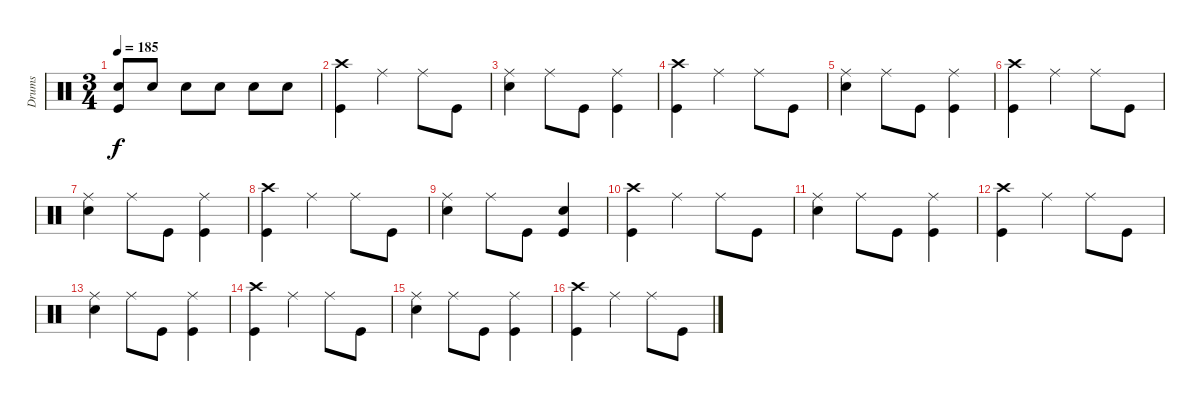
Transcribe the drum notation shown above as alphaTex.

\track ("Drums" "Drums") {instrument percussion}
\staff {score}
\articulation defaults
\ts (3 4)
\tempo 185
\clef neutral
\ks c
("Snare (hit) 2" "Kick (hit)").8{dy f} "Snare (hit) 2".8 "Snare (hit) 2".8 "Snare (hit) 2".8 "Snare (hit) 2".8 "Snare (hit) 2".8 |
("Crash high (hit)" "Kick (hit)").4 "Ride (middle)".4 "Ride (middle)".8 "Kick (hit)".8 |
("Ride (middle)" "Snare (hit) 2").4 "Ride (middle)".8 "Kick (hit)".8 ("Ride (middle)" "Kick (hit)").4 |
("Crash high (hit)" "Kick (hit)").4 "Ride (middle)".4 "Ride (middle)".8 "Kick (hit)".8 |
("Ride (middle)" "Snare (hit) 2").4 "Ride (middle)".8 "Kick (hit)".8 ("Ride (middle)" "Kick (hit)").4 |
("Crash high (hit)" "Kick (hit)").4 "Ride (middle)".4 "Ride (middle)".8 "Kick (hit)".8 |
("Ride (middle)" "Snare (hit) 2").4 "Ride (middle)".8 "Kick (hit)".8 ("Ride (middle)" "Kick (hit)").4 |
("Crash high (hit)" "Kick (hit)").4 "Ride (middle)".4 "Ride (middle)".8 "Kick (hit)".8 |
("Ride (middle)" "Snare (hit) 2").4 "Ride (middle)".8 "Kick (hit)".8 ("Snare (hit) 2" "Kick (hit)").4 |
("Crash high (hit)" "Kick (hit)").4 "Ride (middle)".4 "Ride (middle)".8 "Kick (hit)".8 |
("Ride (middle)" "Snare (hit) 2").4 "Ride (middle)".8 "Kick (hit)".8 ("Ride (middle)" "Kick (hit)").4 |
("Crash high (hit)" "Kick (hit)").4 "Ride (middle)".4 "Ride (middle)".8 "Kick (hit)".8 |
("Ride (middle)" "Snare (hit) 2").4 "Ride (middle)".8 "Kick (hit)".8 ("Ride (middle)" "Kick (hit)").4 |
("Crash high (hit)" "Kick (hit)").4 "Ride (middle)".4 "Ride (middle)".8 "Kick (hit)".8 |
("Ride (middle)" "Snare (hit) 2").4 "Ride (middle)".8 "Kick (hit)".8 ("Ride (middle)" "Kick (hit)").4 |
("Crash high (hit)" "Kick (hit)").4 "Ride (middle)".4 "Ride (middle)".8 "Kick (hit)".8
